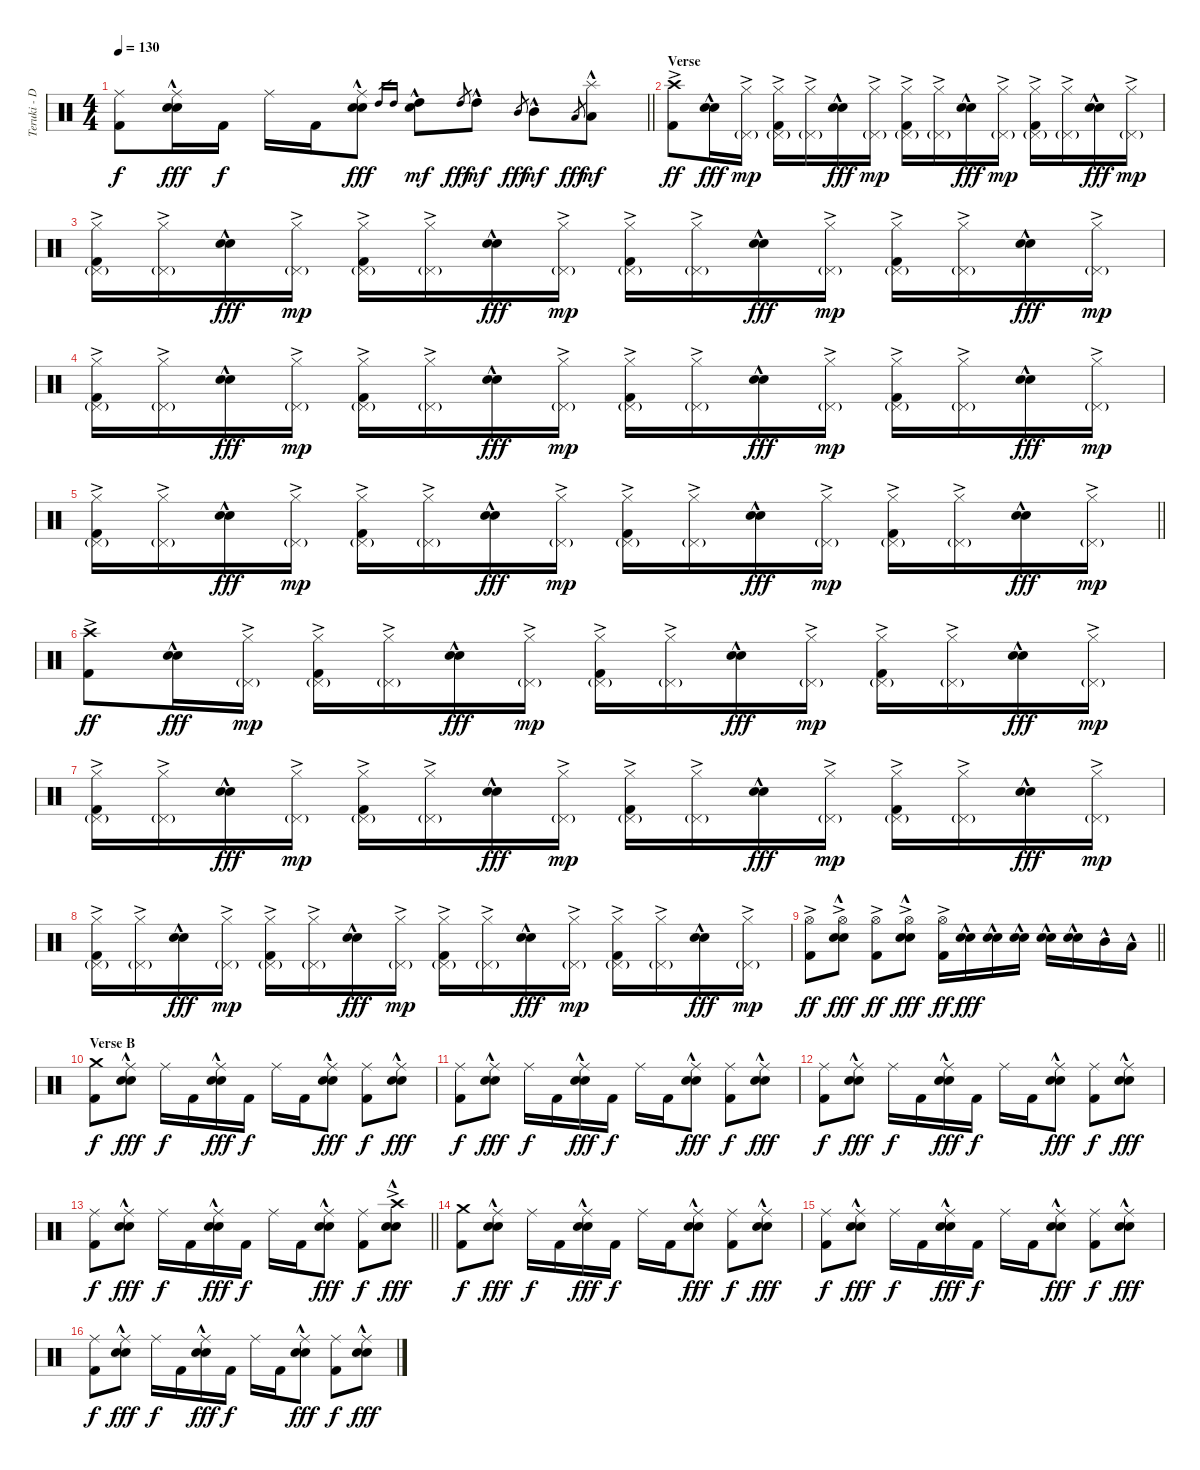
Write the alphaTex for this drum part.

\track ("Teruki - Drums" "Teruki - D") {instrument percussion}
\staff {score}
\articulation defaults
\ts (4 4)
\tempo 130
\clef neutral
\barLineRight lightlight
\ks c
("Ride (middle)" "Kick (hit) 2").8{dy f} ("Ride (middle)" "Electric Snare (hit)"{hac} "Snare (hit) 2").16{dy fff} "Kick (hit) 2".16{dy f} "Ride (middle)".16 "Kick (hit) 2".16 ("Ride (middle)" "Electric Snare (hit)"{hac} "Snare (hit) 2").8{dy fff} "High Tom (hit)".16{gr} "High Tom (hit)".16{gr} ("Electric Snare (hit)"{hac} "High Tom (hit)"{hac}).8{dy mf} "High Tom (hit)".8{gr dy fff} "High Tom (hit)"{hac}.8{dy mf} "Mid Tom (hit)".8{gr dy fff} "Mid Tom (hit)"{hac}.8{dy mf} "Low Tom (hit)".8{gr dy fff} ("Splash (hit)"{hac} "Low Tom (hit)"{hac}).8{dy mf} |
\section ("" "Verse")
("Crash high (hit)"{ac} "Kick (hit) 2").8{dy ff} ("Electric Snare (hit)"{hac} "Snare (hit) 2"{hac}).16{dy fff} ("Hi-Hat (closed)"{ac} "Pedal Hi-Hat (hit)"{g}).16{dy mp} ("Hi-Hat (closed)"{ac} "Pedal Hi-Hat (hit)"{g} "Kick (hit) 2").16 ("Hi-Hat (closed)"{ac} "Pedal Hi-Hat (hit)"{g}).16 ("Electric Snare (hit)"{hac} "Snare (hit) 2"{hac}).16{dy fff} ("Hi-Hat (closed)"{ac} "Pedal Hi-Hat (hit)"{g}).16{dy mp} ("Hi-Hat (closed)"{ac} "Pedal Hi-Hat (hit)"{g} "Kick (hit) 2").16 ("Hi-Hat (closed)"{ac} "Pedal Hi-Hat (hit)"{g}).16 ("Electric Snare (hit)"{hac} "Snare (hit) 2"{hac}).16{dy fff} ("Hi-Hat (closed)"{ac} "Pedal Hi-Hat (hit)"{g}).16{dy mp} ("Hi-Hat (closed)"{ac} "Pedal Hi-Hat (hit)"{g} "Kick (hit) 2").16 ("Hi-Hat (closed)"{ac} "Pedal Hi-Hat (hit)"{g}).16 ("Electric Snare (hit)"{hac} "Snare (hit) 2"{hac}).16{dy fff} ("Hi-Hat (closed)"{ac} "Pedal Hi-Hat (hit)"{g}).16{dy mp} |
("Hi-Hat (closed)"{ac} "Pedal Hi-Hat (hit)"{g} "Kick (hit) 2").16 ("Hi-Hat (closed)"{ac} "Pedal Hi-Hat (hit)"{g}).16 ("Electric Snare (hit)"{hac} "Snare (hit) 2"{hac}).16{dy fff} ("Hi-Hat (closed)"{ac} "Pedal Hi-Hat (hit)"{g}).16{dy mp} ("Hi-Hat (closed)"{ac} "Pedal Hi-Hat (hit)"{g} "Kick (hit) 2").16 ("Hi-Hat (closed)"{ac} "Pedal Hi-Hat (hit)"{g}).16 ("Electric Snare (hit)"{hac} "Snare (hit) 2"{hac}).16{dy fff} ("Hi-Hat (closed)"{ac} "Pedal Hi-Hat (hit)"{g}).16{dy mp} ("Hi-Hat (closed)"{ac} "Pedal Hi-Hat (hit)"{g} "Kick (hit) 2").16 ("Hi-Hat (closed)"{ac} "Pedal Hi-Hat (hit)"{g}).16 ("Electric Snare (hit)"{hac} "Snare (hit) 2"{hac}).16{dy fff} ("Hi-Hat (closed)"{ac} "Pedal Hi-Hat (hit)"{g}).16{dy mp} ("Hi-Hat (closed)"{ac} "Pedal Hi-Hat (hit)"{g} "Kick (hit) 2").16 ("Hi-Hat (closed)"{ac} "Pedal Hi-Hat (hit)"{g}).16 ("Electric Snare (hit)"{hac} "Snare (hit) 2"{hac}).16{dy fff} ("Hi-Hat (closed)"{ac} "Pedal Hi-Hat (hit)"{g}).16{dy mp} |
("Hi-Hat (closed)"{ac} "Pedal Hi-Hat (hit)"{g} "Kick (hit) 2").16 ("Hi-Hat (closed)"{ac} "Pedal Hi-Hat (hit)"{g}).16 ("Electric Snare (hit)"{hac} "Snare (hit) 2"{hac}).16{dy fff} ("Hi-Hat (closed)"{ac} "Pedal Hi-Hat (hit)"{g}).16{dy mp} ("Hi-Hat (closed)"{ac} "Pedal Hi-Hat (hit)"{g} "Kick (hit) 2").16 ("Hi-Hat (closed)"{ac} "Pedal Hi-Hat (hit)"{g}).16 ("Electric Snare (hit)"{hac} "Snare (hit) 2"{hac}).16{dy fff} ("Hi-Hat (closed)"{ac} "Pedal Hi-Hat (hit)"{g}).16{dy mp} ("Hi-Hat (closed)"{ac} "Pedal Hi-Hat (hit)"{g} "Kick (hit) 2").16 ("Hi-Hat (closed)"{ac} "Pedal Hi-Hat (hit)"{g}).16 ("Electric Snare (hit)"{hac} "Snare (hit) 2"{hac}).16{dy fff} ("Hi-Hat (closed)"{ac} "Pedal Hi-Hat (hit)"{g}).16{dy mp} ("Hi-Hat (closed)"{ac} "Pedal Hi-Hat (hit)"{g} "Kick (hit) 2").16 ("Hi-Hat (closed)"{ac} "Pedal Hi-Hat (hit)"{g}).16 ("Electric Snare (hit)"{hac} "Snare (hit) 2"{hac}).16{dy fff} ("Hi-Hat (closed)"{ac} "Pedal Hi-Hat (hit)"{g}).16{dy mp} |
\barLineRight lightlight
("Hi-Hat (closed)"{ac} "Pedal Hi-Hat (hit)"{g} "Kick (hit) 2").16 ("Hi-Hat (closed)"{ac} "Pedal Hi-Hat (hit)"{g}).16 ("Electric Snare (hit)"{hac} "Snare (hit) 2"{hac}).16{dy fff} ("Hi-Hat (closed)"{ac} "Pedal Hi-Hat (hit)"{g}).16{dy mp} ("Hi-Hat (closed)"{ac} "Pedal Hi-Hat (hit)"{g} "Kick (hit) 2").16 ("Hi-Hat (closed)"{ac} "Pedal Hi-Hat (hit)"{g}).16 ("Electric Snare (hit)"{hac} "Snare (hit) 2"{hac}).16{dy fff} ("Hi-Hat (closed)"{ac} "Pedal Hi-Hat (hit)"{g}).16{dy mp} ("Hi-Hat (closed)"{ac} "Pedal Hi-Hat (hit)"{g} "Kick (hit) 2").16 ("Hi-Hat (closed)"{ac} "Pedal Hi-Hat (hit)"{g}).16 ("Electric Snare (hit)"{hac} "Snare (hit) 2"{hac}).16{dy fff} ("Hi-Hat (closed)"{ac} "Pedal Hi-Hat (hit)"{g}).16{dy mp} ("Hi-Hat (closed)"{ac} "Pedal Hi-Hat (hit)"{g} "Kick (hit) 2").16 ("Hi-Hat (closed)"{ac} "Pedal Hi-Hat (hit)"{g}).16 ("Electric Snare (hit)"{hac} "Snare (hit) 2"{hac}).16{dy fff} ("Hi-Hat (closed)"{ac} "Pedal Hi-Hat (hit)"{g}).16{dy mp} |
("Crash high (hit)"{ac} "Kick (hit) 2").8{dy ff} ("Electric Snare (hit)"{hac} "Snare (hit) 2"{hac}).16{dy fff} ("Hi-Hat (closed)"{ac} "Pedal Hi-Hat (hit)"{g}).16{dy mp} ("Hi-Hat (closed)"{ac} "Pedal Hi-Hat (hit)"{g} "Kick (hit) 2").16 ("Hi-Hat (closed)"{ac} "Pedal Hi-Hat (hit)"{g}).16 ("Electric Snare (hit)"{hac} "Snare (hit) 2"{hac}).16{dy fff} ("Hi-Hat (closed)"{ac} "Pedal Hi-Hat (hit)"{g}).16{dy mp} ("Hi-Hat (closed)"{ac} "Pedal Hi-Hat (hit)"{g} "Kick (hit) 2").16 ("Hi-Hat (closed)"{ac} "Pedal Hi-Hat (hit)"{g}).16 ("Electric Snare (hit)"{hac} "Snare (hit) 2"{hac}).16{dy fff} ("Hi-Hat (closed)"{ac} "Pedal Hi-Hat (hit)"{g}).16{dy mp} ("Hi-Hat (closed)"{ac} "Pedal Hi-Hat (hit)"{g} "Kick (hit) 2").16 ("Hi-Hat (closed)"{ac} "Pedal Hi-Hat (hit)"{g}).16 ("Electric Snare (hit)"{hac} "Snare (hit) 2"{hac}).16{dy fff} ("Hi-Hat (closed)"{ac} "Pedal Hi-Hat (hit)"{g}).16{dy mp} |
("Hi-Hat (closed)"{ac} "Pedal Hi-Hat (hit)"{g} "Kick (hit) 2").16 ("Hi-Hat (closed)"{ac} "Pedal Hi-Hat (hit)"{g}).16 ("Electric Snare (hit)"{hac} "Snare (hit) 2"{hac}).16{dy fff} ("Hi-Hat (closed)"{ac} "Pedal Hi-Hat (hit)"{g}).16{dy mp} ("Hi-Hat (closed)"{ac} "Pedal Hi-Hat (hit)"{g} "Kick (hit) 2").16 ("Hi-Hat (closed)"{ac} "Pedal Hi-Hat (hit)"{g}).16 ("Electric Snare (hit)"{hac} "Snare (hit) 2"{hac}).16{dy fff} ("Hi-Hat (closed)"{ac} "Pedal Hi-Hat (hit)"{g}).16{dy mp} ("Hi-Hat (closed)"{ac} "Pedal Hi-Hat (hit)"{g} "Kick (hit) 2").16 ("Hi-Hat (closed)"{ac} "Pedal Hi-Hat (hit)"{g}).16 ("Electric Snare (hit)"{hac} "Snare (hit) 2"{hac}).16{dy fff} ("Hi-Hat (closed)"{ac} "Pedal Hi-Hat (hit)"{g}).16{dy mp} ("Hi-Hat (closed)"{ac} "Pedal Hi-Hat (hit)"{g} "Kick (hit) 2").16 ("Hi-Hat (closed)"{ac} "Pedal Hi-Hat (hit)"{g}).16 ("Electric Snare (hit)"{hac} "Snare (hit) 2"{hac}).16{dy fff} ("Hi-Hat (closed)"{ac} "Pedal Hi-Hat (hit)"{g}).16{dy mp} |
("Hi-Hat (closed)"{ac} "Pedal Hi-Hat (hit)"{g} "Kick (hit) 2").16 ("Hi-Hat (closed)"{ac} "Pedal Hi-Hat (hit)"{g}).16 ("Electric Snare (hit)"{hac} "Snare (hit) 2"{hac}).16{dy fff} ("Hi-Hat (closed)"{ac} "Pedal Hi-Hat (hit)"{g}).16{dy mp} ("Hi-Hat (closed)"{ac} "Pedal Hi-Hat (hit)"{g} "Kick (hit) 2").16 ("Hi-Hat (closed)"{ac} "Pedal Hi-Hat (hit)"{g}).16 ("Electric Snare (hit)"{hac} "Snare (hit) 2"{hac}).16{dy fff} ("Hi-Hat (closed)"{ac} "Pedal Hi-Hat (hit)"{g}).16{dy mp} ("Hi-Hat (closed)"{ac} "Pedal Hi-Hat (hit)"{g} "Kick (hit) 2").16 ("Hi-Hat (closed)"{ac} "Pedal Hi-Hat (hit)"{g}).16 ("Electric Snare (hit)"{hac} "Snare (hit) 2"{hac}).16{dy fff} ("Hi-Hat (closed)"{ac} "Pedal Hi-Hat (hit)"{g}).16{dy mp} ("Hi-Hat (closed)"{ac} "Pedal Hi-Hat (hit)"{g} "Kick (hit) 2").16 ("Hi-Hat (closed)"{ac} "Pedal Hi-Hat (hit)"{g}).16 ("Electric Snare (hit)"{hac} "Snare (hit) 2"{hac}).16{dy fff} ("Hi-Hat (closed)"{ac} "Pedal Hi-Hat (hit)"{g}).16{dy mp} |
\barLineRight lightlight
("Hi-Hat (open)"{ac} "Kick (hit) 2").8{dy ff} ("Hi-Hat (open)"{ac} "Electric Snare (hit)"{hac} "Snare (hit) 2").8{dy fff} ("Hi-Hat (open)"{ac} "Kick (hit) 2").8{dy ff} ("Hi-Hat (open)"{ac} "Electric Snare (hit)"{hac} "Snare (hit) 2").8{dy fff} ("Hi-Hat (open)"{ac} "Kick (hit) 2").16{dy ff} ("Electric Snare (hit)"{hac} "Snare (hit) 2").16{dy fff} ("Electric Snare (hit)"{hac} "Snare (hit) 2").16 ("Electric Snare (hit)"{hac} "Snare (hit) 2").16 ("Electric Snare (hit)"{hac} "Snare (hit) 2").16 ("Electric Snare (hit)"{hac} "Snare (hit) 2").16 "Mid Tom (hit)"{hac}.16 "Low Tom (hit)"{hac}.16 |
\section ("" "Verse B")
("Crash medium (hit)" "Kick (hit) 2").8{dy f} ("Ride (middle)" "Electric Snare (hit)"{hac} "Snare (hit) 2").8{dy fff} "Ride (middle)".16{dy f} "Kick (hit) 2".16 ("Ride (middle)" "Electric Snare (hit)"{hac} "Snare (hit) 2").16{dy fff} "Kick (hit) 2".16{dy f} "Ride (middle)".16 "Kick (hit) 2".16 ("Ride (middle)" "Electric Snare (hit)"{hac} "Snare (hit) 2").8{dy fff} ("Ride (middle)" "Kick (hit) 2").8{dy f} ("Ride (middle)" "Electric Snare (hit)"{hac} "Snare (hit) 2").8{dy fff} |
("Ride (middle)" "Kick (hit) 2").8{dy f} ("Ride (middle)" "Electric Snare (hit)"{hac} "Snare (hit) 2").8{dy fff} "Ride (middle)".16{dy f} "Kick (hit) 2".16 ("Ride (middle)" "Electric Snare (hit)"{hac} "Snare (hit) 2").16{dy fff} "Kick (hit) 2".16{dy f} "Ride (middle)".16 "Kick (hit) 2".16 ("Ride (middle)" "Electric Snare (hit)"{hac} "Snare (hit) 2").8{dy fff} ("Ride (middle)" "Kick (hit) 2").8{dy f} ("Ride (middle)" "Electric Snare (hit)"{hac} "Snare (hit) 2").8{dy fff} |
("Ride (middle)" "Kick (hit) 2").8{dy f} ("Ride (middle)" "Electric Snare (hit)"{hac} "Snare (hit) 2").8{dy fff} "Ride (middle)".16{dy f} "Kick (hit) 2".16 ("Ride (middle)" "Electric Snare (hit)"{hac} "Snare (hit) 2").16{dy fff} "Kick (hit) 2".16{dy f} "Ride (middle)".16 "Kick (hit) 2".16 ("Ride (middle)" "Electric Snare (hit)"{hac} "Snare (hit) 2").8{dy fff} ("Ride (middle)" "Kick (hit) 2").8{dy f} ("Ride (middle)" "Electric Snare (hit)"{hac} "Snare (hit) 2").8{dy fff} |
\barLineRight lightlight
("Ride (middle)" "Kick (hit) 2").8{dy f} ("Ride (middle)" "Electric Snare (hit)"{hac} "Snare (hit) 2").8{dy fff} "Ride (middle)".16{dy f} "Kick (hit) 2".16 ("Ride (middle)" "Electric Snare (hit)"{hac} "Snare (hit) 2").16{dy fff} "Kick (hit) 2".16{dy f} "Ride (middle)".16 "Kick (hit) 2".16 ("Ride (middle)" "Electric Snare (hit)"{hac} "Snare (hit) 2").8{dy fff} ("Ride (middle)" "Kick (hit) 2").8{dy f} ("Crash high (hit)"{ac} "Electric Snare (hit)"{hac} "Snare (hit) 2").8{dy fff} |
("Crash medium (hit)" "Kick (hit) 2").8{dy f} ("Ride (middle)" "Electric Snare (hit)"{hac} "Snare (hit) 2").8{dy fff} "Ride (middle)".16{dy f} "Kick (hit) 2".16 ("Ride (middle)" "Electric Snare (hit)"{hac} "Snare (hit) 2").16{dy fff} "Kick (hit) 2".16{dy f} "Ride (middle)".16 "Kick (hit) 2".16 ("Ride (middle)" "Electric Snare (hit)"{hac} "Snare (hit) 2").8{dy fff} ("Ride (middle)" "Kick (hit) 2").8{dy f} ("Ride (middle)" "Electric Snare (hit)"{hac} "Snare (hit) 2").8{dy fff} |
("Ride (middle)" "Kick (hit) 2").8{dy f} ("Ride (middle)" "Electric Snare (hit)"{hac} "Snare (hit) 2").8{dy fff} "Ride (middle)".16{dy f} "Kick (hit) 2".16 ("Ride (middle)" "Electric Snare (hit)"{hac} "Snare (hit) 2").16{dy fff} "Kick (hit) 2".16{dy f} "Ride (middle)".16 "Kick (hit) 2".16 ("Ride (middle)" "Electric Snare (hit)"{hac} "Snare (hit) 2").8{dy fff} ("Ride (middle)" "Kick (hit) 2").8{dy f} ("Ride (middle)" "Electric Snare (hit)"{hac} "Snare (hit) 2").8{dy fff} |
("Ride (middle)" "Kick (hit) 2").8{dy f} ("Ride (middle)" "Electric Snare (hit)"{hac} "Snare (hit) 2").8{dy fff} "Ride (middle)".16{dy f} "Kick (hit) 2".16 ("Ride (middle)" "Electric Snare (hit)"{hac} "Snare (hit) 2").16{dy fff} "Kick (hit) 2".16{dy f} "Ride (middle)".16 "Kick (hit) 2".16 ("Ride (middle)" "Electric Snare (hit)"{hac} "Snare (hit) 2").8{dy fff} ("Ride (middle)" "Kick (hit) 2").8{dy f} ("Ride (middle)" "Electric Snare (hit)"{hac} "Snare (hit) 2").8{dy fff}
